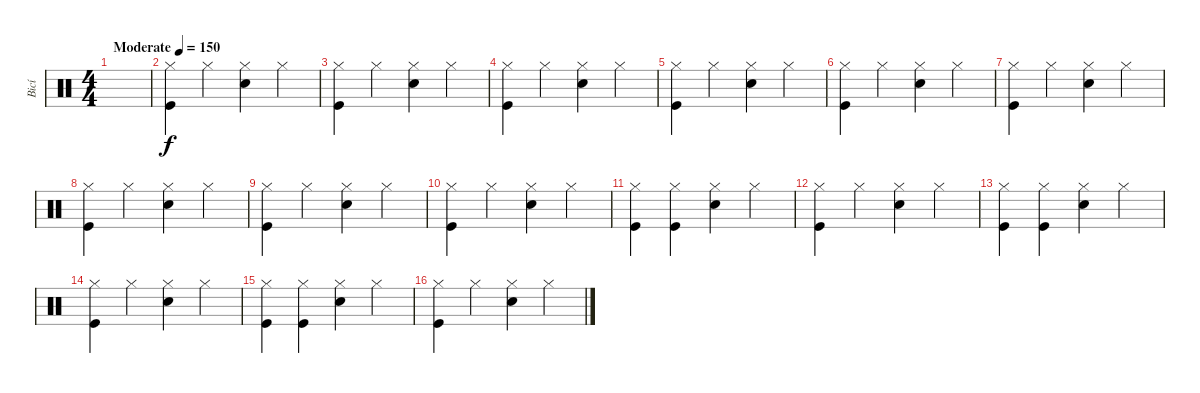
\track ("Bicí" "Bicí") {instrument percussion}
\staff {score}
\articulation defaults
\ts (4 4)
\tempo (150 "Moderate")
\clef neutral
\ks c
|
("Kick (hit)" "Hi-Hat (closed)").4 "Hi-Hat (closed)".4 ("Snare (hit) 2" "Hi-Hat (closed)").4 "Hi-Hat (closed)".4 |
("Kick (hit)" "Hi-Hat (closed)").4 "Hi-Hat (closed)".4 ("Snare (hit) 2" "Hi-Hat (closed)").4 "Hi-Hat (closed)".4 |
("Kick (hit)" "Hi-Hat (closed)").4 "Hi-Hat (closed)".4 ("Snare (hit) 2" "Hi-Hat (closed)").4 "Hi-Hat (closed)".4 |
("Kick (hit)" "Hi-Hat (closed)").4 "Hi-Hat (closed)".4 ("Snare (hit) 2" "Hi-Hat (closed)").4 "Hi-Hat (closed)".4 |
("Kick (hit)" "Hi-Hat (closed)").4 "Hi-Hat (closed)".4 ("Snare (hit) 2" "Hi-Hat (closed)").4 "Hi-Hat (closed)".4 |
("Kick (hit)" "Hi-Hat (closed)").4 "Hi-Hat (closed)".4 ("Snare (hit) 2" "Hi-Hat (closed)").4 "Hi-Hat (closed)".4 |
("Kick (hit)" "Hi-Hat (closed)").4 "Hi-Hat (closed)".4 ("Snare (hit) 2" "Hi-Hat (closed)").4 "Hi-Hat (closed)".4 |
("Kick (hit)" "Hi-Hat (closed)").4 "Hi-Hat (closed)".4 ("Snare (hit) 2" "Hi-Hat (closed)").4 "Hi-Hat (closed)".4 |
("Kick (hit)" "Hi-Hat (closed)").4 "Hi-Hat (closed)".4 ("Snare (hit) 2" "Hi-Hat (closed)").4 "Hi-Hat (closed)".4 |
("Kick (hit)" "Hi-Hat (closed)").4 ("Kick (hit)" "Hi-Hat (closed)").4 ("Snare (hit) 2" "Hi-Hat (closed)").4 "Hi-Hat (closed)".4 |
("Kick (hit)" "Hi-Hat (closed)").4 "Hi-Hat (closed)".4 ("Snare (hit) 2" "Hi-Hat (closed)").4 "Hi-Hat (closed)".4 |
("Kick (hit)" "Hi-Hat (closed)").4 ("Kick (hit)" "Hi-Hat (closed)").4 ("Snare (hit) 2" "Hi-Hat (closed)").4 "Hi-Hat (closed)".4 |
("Kick (hit)" "Hi-Hat (closed)").4 "Hi-Hat (closed)".4 ("Snare (hit) 2" "Hi-Hat (closed)").4 "Hi-Hat (closed)".4 |
("Kick (hit)" "Hi-Hat (closed)").4 ("Kick (hit)" "Hi-Hat (closed)").4 ("Snare (hit) 2" "Hi-Hat (closed)").4 "Hi-Hat (closed)".4 |
("Kick (hit)" "Hi-Hat (closed)").4 "Hi-Hat (closed)".4 ("Snare (hit) 2" "Hi-Hat (closed)").4 "Hi-Hat (closed)".4
